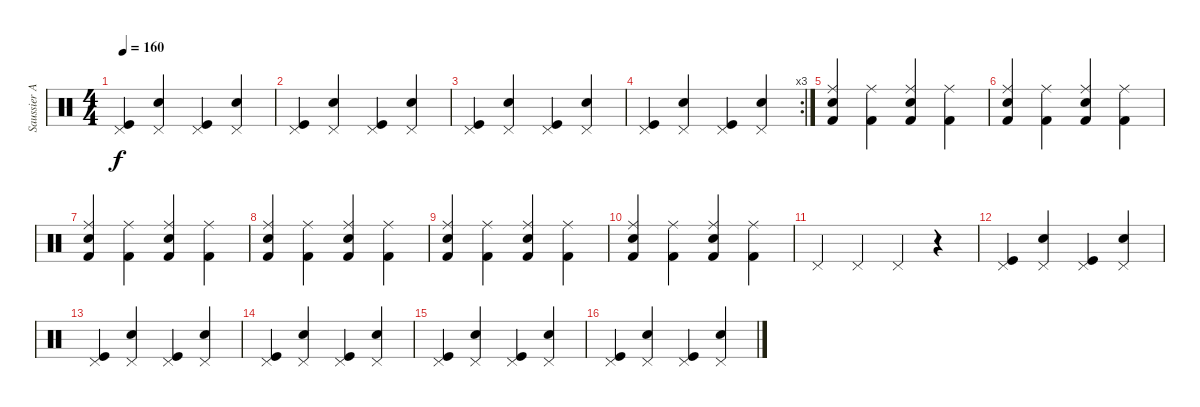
\track ("Saussier Arthur" "Saussier A") {instrument percussion}
\staff {score}
\articulation defaults
\ts (4 4)
\tempo 160
\clef neutral
\ks c
("Pedal Hi-Hat (hit)" "Kick (hit)").4{dy f} ("Pedal Hi-Hat (hit)" "Electric Snare (hit)").4 ("Pedal Hi-Hat (hit)" "Kick (hit)").4 ("Pedal Hi-Hat (hit)" "Electric Snare (hit)").4 |
("Pedal Hi-Hat (hit)" "Kick (hit)").4 ("Pedal Hi-Hat (hit)" "Electric Snare (hit)").4 ("Pedal Hi-Hat (hit)" "Kick (hit)").4 ("Pedal Hi-Hat (hit)" "Electric Snare (hit)").4 |
("Pedal Hi-Hat (hit)" "Kick (hit)").4 ("Pedal Hi-Hat (hit)" "Electric Snare (hit)").4 ("Pedal Hi-Hat (hit)" "Kick (hit)").4 ("Pedal Hi-Hat (hit)" "Electric Snare (hit)").4 |
\rc 3
("Pedal Hi-Hat (hit)" "Kick (hit)").4 ("Pedal Hi-Hat (hit)" "Electric Snare (hit)").4 ("Pedal Hi-Hat (hit)" "Kick (hit)").4 ("Pedal Hi-Hat (hit)" "Electric Snare (hit)").4 |
("Ride (middle)" "Electric Snare (hit)" "Kick (hit) 2").4 ("Ride (middle)" "Kick (hit) 2").4 ("Ride (middle)" "Electric Snare (hit)" "Kick (hit) 2").4 ("Ride (middle)" "Kick (hit) 2").4 |
("Ride (middle)" "Electric Snare (hit)" "Kick (hit) 2").4 ("Ride (middle)" "Kick (hit) 2").4 ("Ride (middle)" "Electric Snare (hit)" "Kick (hit) 2").4 ("Ride (middle)" "Kick (hit) 2").4 |
("Ride (middle)" "Electric Snare (hit)" "Kick (hit) 2").4 ("Ride (middle)" "Kick (hit) 2").4 ("Ride (middle)" "Electric Snare (hit)" "Kick (hit) 2").4 ("Ride (middle)" "Kick (hit) 2").4 |
("Ride (middle)" "Electric Snare (hit)" "Kick (hit) 2").4 ("Ride (middle)" "Kick (hit) 2").4 ("Ride (middle)" "Electric Snare (hit)" "Kick (hit) 2").4 ("Ride (middle)" "Kick (hit) 2").4 |
("Ride (middle)" "Electric Snare (hit)" "Kick (hit) 2").4 ("Ride (middle)" "Kick (hit) 2").4 ("Ride (middle)" "Electric Snare (hit)" "Kick (hit) 2").4 ("Ride (middle)" "Kick (hit) 2").4 |
("Ride (middle)" "Electric Snare (hit)" "Kick (hit) 2").4 ("Ride (middle)" "Kick (hit) 2").4 ("Ride (middle)" "Electric Snare (hit)" "Kick (hit) 2").4 ("Ride (middle)" "Kick (hit) 2").4 |
"Pedal Hi-Hat (hit)".4 "Pedal Hi-Hat (hit)".4 "Pedal Hi-Hat (hit)".4 r.4 |
("Pedal Hi-Hat (hit)" "Kick (hit)").4 ("Pedal Hi-Hat (hit)" "Electric Snare (hit)").4 ("Pedal Hi-Hat (hit)" "Kick (hit)").4 ("Pedal Hi-Hat (hit)" "Electric Snare (hit)").4 |
("Pedal Hi-Hat (hit)" "Kick (hit)").4 ("Pedal Hi-Hat (hit)" "Electric Snare (hit)").4 ("Pedal Hi-Hat (hit)" "Kick (hit)").4 ("Pedal Hi-Hat (hit)" "Electric Snare (hit)").4 |
("Pedal Hi-Hat (hit)" "Kick (hit)").4 ("Pedal Hi-Hat (hit)" "Electric Snare (hit)").4 ("Pedal Hi-Hat (hit)" "Kick (hit)").4 ("Pedal Hi-Hat (hit)" "Electric Snare (hit)").4 |
("Pedal Hi-Hat (hit)" "Kick (hit)").4 ("Pedal Hi-Hat (hit)" "Electric Snare (hit)").4 ("Pedal Hi-Hat (hit)" "Kick (hit)").4 ("Pedal Hi-Hat (hit)" "Electric Snare (hit)").4 |
("Pedal Hi-Hat (hit)" "Kick (hit)").4 ("Pedal Hi-Hat (hit)" "Electric Snare (hit)").4 ("Pedal Hi-Hat (hit)" "Kick (hit)").4 ("Pedal Hi-Hat (hit)" "Electric Snare (hit)").4
